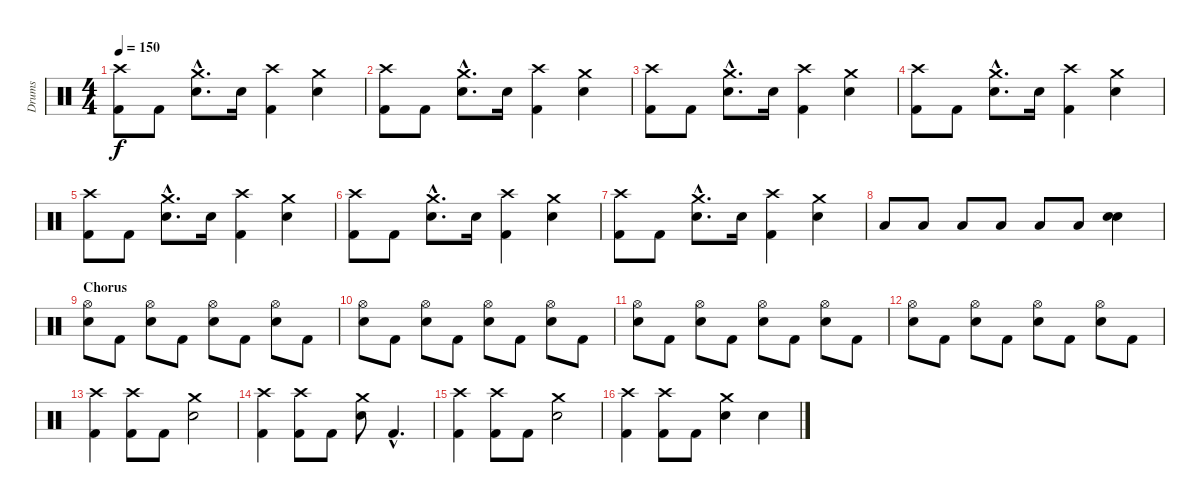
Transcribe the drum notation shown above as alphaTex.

\track ("Drums" "Drums") {instrument percussion}
\staff {score}
\articulation defaults
\ts (4 4)
\tempo 150
\clef neutral
\ks c
("Kick (hit) 2" "Crash high (hit)").8{dy f} "Kick (hit) 2".8 ("Electric Snare (hit)"{hac} "Crash medium (hit)"{hac}).8{d} "Electric Snare (hit)".16 ("Kick (hit) 2" "Crash high (hit)").4 ("Electric Snare (hit)" "Crash medium (hit)").4 |
("Kick (hit) 2" "Crash high (hit)").8 "Kick (hit) 2".8 ("Electric Snare (hit)"{hac} "Crash medium (hit)"{hac}).8{d} "Electric Snare (hit)".16 ("Kick (hit) 2" "Crash high (hit)").4 ("Electric Snare (hit)" "Crash medium (hit)").4 |
("Kick (hit) 2" "Crash high (hit)").8 "Kick (hit) 2".8 ("Electric Snare (hit)"{hac} "Crash medium (hit)"{hac}).8{d} "Electric Snare (hit)".16 ("Kick (hit) 2" "Crash high (hit)").4 ("Electric Snare (hit)" "Crash medium (hit)").4 |
("Kick (hit) 2" "Crash high (hit)").8 "Kick (hit) 2".8 ("Electric Snare (hit)"{hac} "Crash medium (hit)"{hac}).8{d} "Electric Snare (hit)".16 ("Kick (hit) 2" "Crash high (hit)").4 ("Electric Snare (hit)" "Crash medium (hit)").4 |
("Kick (hit) 2" "Crash high (hit)").8 "Kick (hit) 2".8 ("Electric Snare (hit)"{hac} "Crash medium (hit)"{hac}).8{d} "Electric Snare (hit)".16 ("Kick (hit) 2" "Crash high (hit)").4 ("Electric Snare (hit)" "Crash medium (hit)").4 |
("Kick (hit) 2" "Crash high (hit)").8 "Kick (hit) 2".8 ("Electric Snare (hit)"{hac} "Crash medium (hit)"{hac}).8{d} "Electric Snare (hit)".16 ("Kick (hit) 2" "Crash high (hit)").4 ("Electric Snare (hit)" "Crash medium (hit)").4 |
("Kick (hit) 2" "Crash high (hit)").8 "Kick (hit) 2".8 ("Electric Snare (hit)"{hac} "Crash medium (hit)"{hac}).8{d} "Electric Snare (hit)".16 ("Kick (hit) 2" "Crash high (hit)").4 ("Electric Snare (hit)" "Crash medium (hit)").4 |
"Low Floor Tom (hit)".8 "Low Floor Tom (hit)".8 "Low Floor Tom (hit)".8 "Low Floor Tom (hit)".8 "Low Floor Tom (hit)".8 "Low Floor Tom (hit)".8 ("Electric Snare (hit)" "Electric Snare (hit)").4 |
\section ("" "Chorus")
("Electric Snare (hit)" "Hi-Hat (open)").8 "Kick (hit) 2".8 ("Electric Snare (hit)" "Hi-Hat (open)").8 "Kick (hit) 2".8 ("Electric Snare (hit)" "Hi-Hat (open)").8 "Kick (hit) 2".8 ("Electric Snare (hit)" "Hi-Hat (open)").8 "Kick (hit) 2".8 |
("Electric Snare (hit)" "Hi-Hat (open)").8 "Kick (hit) 2".8 ("Electric Snare (hit)" "Hi-Hat (open)").8 "Kick (hit) 2".8 ("Electric Snare (hit)" "Hi-Hat (open)").8 "Kick (hit) 2".8 ("Electric Snare (hit)" "Hi-Hat (open)").8 "Kick (hit) 2".8 |
("Electric Snare (hit)" "Hi-Hat (open)").8 "Kick (hit) 2".8 ("Electric Snare (hit)" "Hi-Hat (open)").8 "Kick (hit) 2".8 ("Electric Snare (hit)" "Hi-Hat (open)").8 "Kick (hit) 2".8 ("Electric Snare (hit)" "Hi-Hat (open)").8 "Kick (hit) 2".8 |
("Electric Snare (hit)" "Hi-Hat (open)").8 "Kick (hit) 2".8 ("Electric Snare (hit)" "Hi-Hat (open)").8 "Kick (hit) 2".8 ("Electric Snare (hit)" "Hi-Hat (open)").8 "Kick (hit) 2".8 ("Electric Snare (hit)" "Hi-Hat (open)").8 "Kick (hit) 2".8 |
("Kick (hit) 2" "Crash high (hit)").4 ("Kick (hit) 2" "Crash high (hit)").8 "Kick (hit) 2".8 ("Electric Snare (hit)" "Crash medium (hit)").2 |
("Kick (hit) 2" "Crash high (hit)").4 ("Kick (hit) 2" "Crash high (hit)").8 "Kick (hit) 2".8 ("Electric Snare (hit)" "Crash medium (hit)").8 "Kick (hit) 2"{hac}.4{d} |
("Kick (hit) 2" "Crash high (hit)").4 ("Kick (hit) 2" "Crash high (hit)").8 "Kick (hit) 2".8 ("Electric Snare (hit)" "Crash medium (hit)").2 |
("Kick (hit) 2" "Crash high (hit)").4 ("Kick (hit) 2" "Crash high (hit)").8 "Kick (hit) 2".8 ("Electric Snare (hit)" "Crash medium (hit)").4 "Electric Snare (hit)".4
